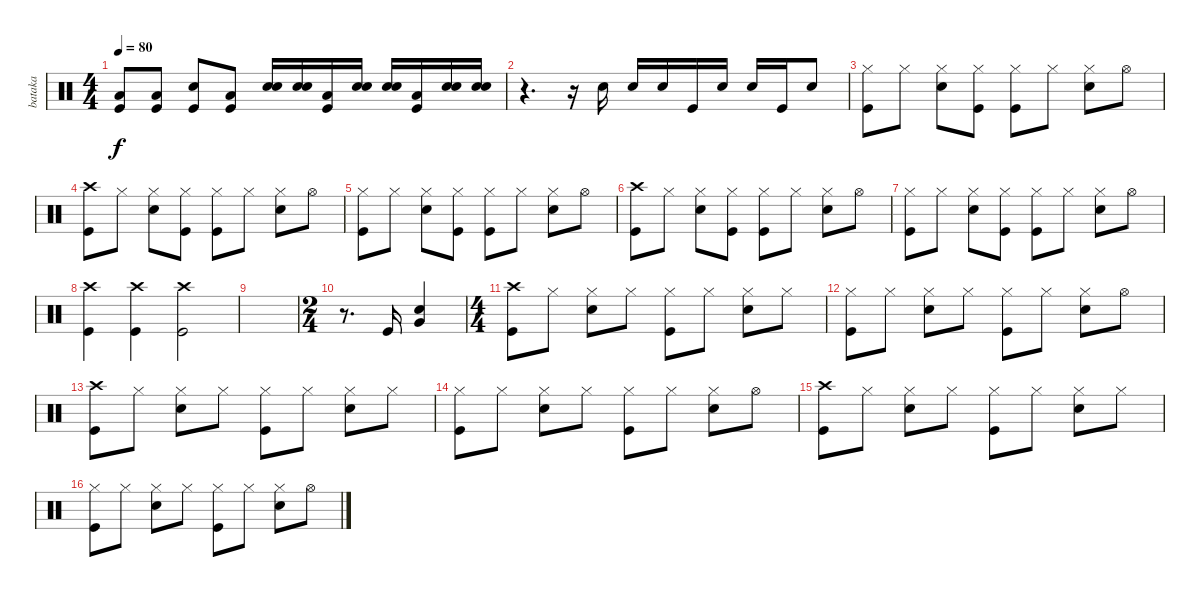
\track ("bataka" "bataka") {instrument percussion}
\staff {score}
\articulation defaults
\ts (4 4)
\tempo 80
\clef neutral
\ks c
("Low Floor Tom (hit)" "Kick (hit)").8{dy f} ("Low Floor Tom (hit)" "Kick (hit)").8 ("Electric Snare (hit)" "Kick (hit)").8 ("Low Floor Tom (hit)" "Kick (hit)").8 ("Electric Snare (hit)" "Electric Snare (hit)").16 ("Electric Snare (hit)" "Electric Snare (hit)").16 ("Low Floor Tom (hit)" "Kick (hit)").16 ("Electric Snare (hit)" "Electric Snare (hit)").16 ("Electric Snare (hit)" "Electric Snare (hit)").16 ("Low Floor Tom (hit)" "Kick (hit)").16 ("Electric Snare (hit)" "Electric Snare (hit)").16 ("Electric Snare (hit)" "Electric Snare (hit)").16 |
r.4{d} r.16 "Electric Snare (hit)".16 "Electric Snare (hit)".16 "Electric Snare (hit)".16 "Kick (hit)".16 "Electric Snare (hit)".16 "Electric Snare (hit)".16 "Kick (hit)".16 "Electric Snare (hit)".8 |
("Hi-Hat (closed)" "Kick (hit)").8 "Hi-Hat (closed)".8 ("Hi-Hat (closed)" "Electric Snare (hit)").8 ("Hi-Hat (closed)" "Kick (hit)").8 ("Hi-Hat (closed)" "Kick (hit)").8 "Hi-Hat (closed)".8 ("Hi-Hat (closed)" "Electric Snare (hit)").8 "Hi-Hat (open)".8 |
("Crash high (hit)" "Kick (hit)").8 "Hi-Hat (closed)".8 ("Hi-Hat (closed)" "Electric Snare (hit)").8 ("Hi-Hat (closed)" "Kick (hit)").8 ("Hi-Hat (closed)" "Kick (hit)").8 "Hi-Hat (closed)".8 ("Hi-Hat (closed)" "Electric Snare (hit)").8 "Hi-Hat (open)".8 |
("Hi-Hat (closed)" "Kick (hit)").8 "Hi-Hat (closed)".8 ("Hi-Hat (closed)" "Electric Snare (hit)").8 ("Hi-Hat (closed)" "Kick (hit)").8 ("Hi-Hat (closed)" "Kick (hit)").8 "Hi-Hat (closed)".8 ("Hi-Hat (closed)" "Electric Snare (hit)").8 "Hi-Hat (open)".8 |
("Crash high (hit)" "Kick (hit)").8 "Hi-Hat (closed)".8 ("Hi-Hat (closed)" "Electric Snare (hit)").8 ("Hi-Hat (closed)" "Kick (hit)").8 ("Hi-Hat (closed)" "Kick (hit)").8 "Hi-Hat (closed)".8 ("Hi-Hat (closed)" "Electric Snare (hit)").8 "Hi-Hat (open)".8 |
("Hi-Hat (closed)" "Kick (hit)").8 "Hi-Hat (closed)".8 ("Hi-Hat (closed)" "Electric Snare (hit)").8 ("Hi-Hat (closed)" "Kick (hit)").8 ("Hi-Hat (closed)" "Kick (hit)").8 "Hi-Hat (closed)".8 ("Hi-Hat (closed)" "Electric Snare (hit)").8 "Hi-Hat (open)".8 |
("Crash high (hit)" "Kick (hit)").4 ("Crash high (hit)" "Kick (hit)").4 ("Crash high (hit)" "Kick (hit)").2 |
|
\ts (2 4)
r.8{d} "Kick (hit)".16 ("Electric Snare (hit)" "Very Low Tom (hit)").4 |
\ts (4 4)
("Crash high (hit)" "Kick (hit)").8 "Hi-Hat (closed)".8 ("Hi-Hat (closed)" "Electric Snare (hit)").8 "Hi-Hat (closed)".8 ("Hi-Hat (closed)" "Kick (hit)").8 "Hi-Hat (closed)".8 ("Hi-Hat (closed)" "Electric Snare (hit)").8 "Hi-Hat (closed)".8 |
("Hi-Hat (closed)" "Kick (hit)").8 "Hi-Hat (closed)".8 ("Hi-Hat (closed)" "Electric Snare (hit)").8 "Hi-Hat (closed)".8 ("Hi-Hat (closed)" "Kick (hit)").8 "Hi-Hat (closed)".8 ("Hi-Hat (closed)" "Electric Snare (hit)").8 "Hi-Hat (open)".8 |
("Crash high (hit)" "Kick (hit)").8 "Hi-Hat (closed)".8 ("Hi-Hat (closed)" "Electric Snare (hit)").8 "Hi-Hat (closed)".8 ("Hi-Hat (closed)" "Kick (hit)").8 "Hi-Hat (closed)".8 ("Hi-Hat (closed)" "Electric Snare (hit)").8 "Hi-Hat (closed)".8 |
("Hi-Hat (closed)" "Kick (hit)").8 "Hi-Hat (closed)".8 ("Hi-Hat (closed)" "Electric Snare (hit)").8 "Hi-Hat (closed)".8 ("Hi-Hat (closed)" "Kick (hit)").8 "Hi-Hat (closed)".8 ("Hi-Hat (closed)" "Electric Snare (hit)").8 "Hi-Hat (open)".8 |
("Crash high (hit)" "Kick (hit)").8 "Hi-Hat (closed)".8 ("Hi-Hat (closed)" "Electric Snare (hit)").8 "Hi-Hat (closed)".8 ("Hi-Hat (closed)" "Kick (hit)").8 "Hi-Hat (closed)".8 ("Hi-Hat (closed)" "Electric Snare (hit)").8 "Hi-Hat (closed)".8 |
("Hi-Hat (closed)" "Kick (hit)").8 "Hi-Hat (closed)".8 ("Hi-Hat (closed)" "Electric Snare (hit)").8 "Hi-Hat (closed)".8 ("Hi-Hat (closed)" "Kick (hit)").8 "Hi-Hat (closed)".8 ("Hi-Hat (closed)" "Electric Snare (hit)").8 "Hi-Hat (open)".8
